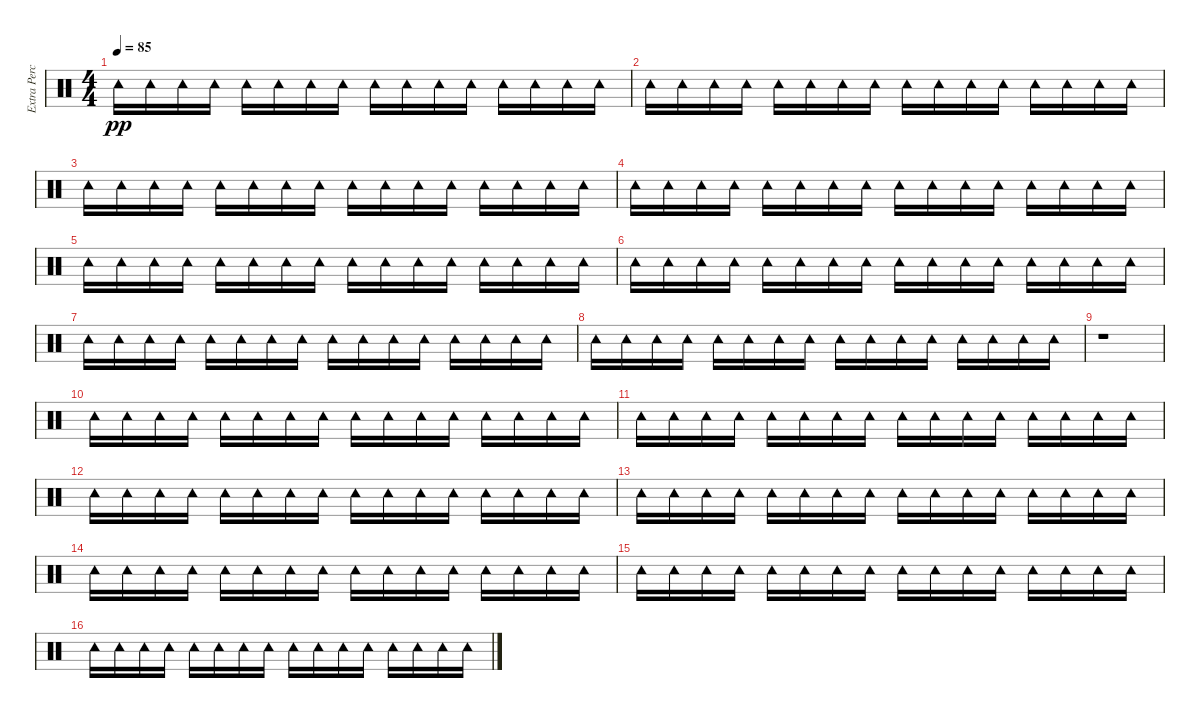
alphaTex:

\track ("Extra Percussion" "Extra Perc") {instrument percussion}
\staff {score}
\articulation defaults
\ts (4 4)
\tempo 85
\clef neutral
\ks c "Tambourine (hit)".16{dy pp} "Tambourine (hit)".16 "Tambourine (hit)".16 "Tambourine (hit)".16 "Tambourine (hit)".16 "Tambourine (hit)".16 "Tambourine (hit)".16 "Tambourine (hit)".16 "Tambourine (hit)".16 "Tambourine (hit)".16 "Tambourine (hit)".16 "Tambourine (hit)".16 "Tambourine (hit)".16 "Tambourine (hit)".16 "Tambourine (hit)".16 "Tambourine (hit)".16
|
"Tambourine (hit)".16 "Tambourine (hit)".16 "Tambourine (hit)".16 "Tambourine (hit)".16 "Tambourine (hit)".16 "Tambourine (hit)".16 "Tambourine (hit)".16 "Tambourine (hit)".16 "Tambourine (hit)".16 "Tambourine (hit)".16 "Tambourine (hit)".16 "Tambourine (hit)".16 "Tambourine (hit)".16 "Tambourine (hit)".16 "Tambourine (hit)".16 "Tambourine (hit)".16 |
"Tambourine (hit)".16 "Tambourine (hit)".16 "Tambourine (hit)".16 "Tambourine (hit)".16 "Tambourine (hit)".16 "Tambourine (hit)".16 "Tambourine (hit)".16 "Tambourine (hit)".16 "Tambourine (hit)".16 "Tambourine (hit)".16 "Tambourine (hit)".16 "Tambourine (hit)".16 "Tambourine (hit)".16 "Tambourine (hit)".16 "Tambourine (hit)".16 "Tambourine (hit)".16 |
"Tambourine (hit)".16 "Tambourine (hit)".16 "Tambourine (hit)".16 "Tambourine (hit)".16 "Tambourine (hit)".16 "Tambourine (hit)".16 "Tambourine (hit)".16 "Tambourine (hit)".16 "Tambourine (hit)".16 "Tambourine (hit)".16 "Tambourine (hit)".16 "Tambourine (hit)".16 "Tambourine (hit)".16 "Tambourine (hit)".16 "Tambourine (hit)".16 "Tambourine (hit)".16 |
"Tambourine (hit)".16 "Tambourine (hit)".16 "Tambourine (hit)".16 "Tambourine (hit)".16 "Tambourine (hit)".16 "Tambourine (hit)".16 "Tambourine (hit)".16 "Tambourine (hit)".16 "Tambourine (hit)".16 "Tambourine (hit)".16 "Tambourine (hit)".16 "Tambourine (hit)".16 "Tambourine (hit)".16 "Tambourine (hit)".16 "Tambourine (hit)".16 "Tambourine (hit)".16 |
"Tambourine (hit)".16 "Tambourine (hit)".16 "Tambourine (hit)".16 "Tambourine (hit)".16 "Tambourine (hit)".16 "Tambourine (hit)".16 "Tambourine (hit)".16 "Tambourine (hit)".16 "Tambourine (hit)".16 "Tambourine (hit)".16 "Tambourine (hit)".16 "Tambourine (hit)".16 "Tambourine (hit)".16 "Tambourine (hit)".16 "Tambourine (hit)".16 "Tambourine (hit)".16 |
"Tambourine (hit)".16 "Tambourine (hit)".16 "Tambourine (hit)".16 "Tambourine (hit)".16 "Tambourine (hit)".16 "Tambourine (hit)".16 "Tambourine (hit)".16 "Tambourine (hit)".16 "Tambourine (hit)".16 "Tambourine (hit)".16 "Tambourine (hit)".16 "Tambourine (hit)".16 "Tambourine (hit)".16 "Tambourine (hit)".16 "Tambourine (hit)".16 "Tambourine (hit)".16 |
"Tambourine (hit)".16 "Tambourine (hit)".16 "Tambourine (hit)".16 "Tambourine (hit)".16 "Tambourine (hit)".16 "Tambourine (hit)".16 "Tambourine (hit)".16 "Tambourine (hit)".16 "Tambourine (hit)".16 "Tambourine (hit)".16 "Tambourine (hit)".16 "Tambourine (hit)".16 "Tambourine (hit)".16 "Tambourine (hit)".16 "Tambourine (hit)".16 "Tambourine (hit)".16 |
r.1 |
"Tambourine (hit)".16 "Tambourine (hit)".16 "Tambourine (hit)".16 "Tambourine (hit)".16 "Tambourine (hit)".16 "Tambourine (hit)".16 "Tambourine (hit)".16 "Tambourine (hit)".16 "Tambourine (hit)".16 "Tambourine (hit)".16 "Tambourine (hit)".16 "Tambourine (hit)".16 "Tambourine (hit)".16 "Tambourine (hit)".16 "Tambourine (hit)".16 "Tambourine (hit)".16 |
"Tambourine (hit)".16 "Tambourine (hit)".16 "Tambourine (hit)".16 "Tambourine (hit)".16 "Tambourine (hit)".16 "Tambourine (hit)".16 "Tambourine (hit)".16 "Tambourine (hit)".16 "Tambourine (hit)".16 "Tambourine (hit)".16 "Tambourine (hit)".16 "Tambourine (hit)".16 "Tambourine (hit)".16 "Tambourine (hit)".16 "Tambourine (hit)".16 "Tambourine (hit)".16 |
"Tambourine (hit)".16 "Tambourine (hit)".16 "Tambourine (hit)".16 "Tambourine (hit)".16 "Tambourine (hit)".16 "Tambourine (hit)".16 "Tambourine (hit)".16 "Tambourine (hit)".16 "Tambourine (hit)".16 "Tambourine (hit)".16 "Tambourine (hit)".16 "Tambourine (hit)".16 "Tambourine (hit)".16 "Tambourine (hit)".16 "Tambourine (hit)".16 "Tambourine (hit)".16 |
"Tambourine (hit)".16 "Tambourine (hit)".16 "Tambourine (hit)".16 "Tambourine (hit)".16 "Tambourine (hit)".16 "Tambourine (hit)".16 "Tambourine (hit)".16 "Tambourine (hit)".16 "Tambourine (hit)".16 "Tambourine (hit)".16 "Tambourine (hit)".16 "Tambourine (hit)".16 "Tambourine (hit)".16 "Tambourine (hit)".16 "Tambourine (hit)".16 "Tambourine (hit)".16 |
"Tambourine (hit)".16 "Tambourine (hit)".16 "Tambourine (hit)".16 "Tambourine (hit)".16 "Tambourine (hit)".16 "Tambourine (hit)".16 "Tambourine (hit)".16 "Tambourine (hit)".16 "Tambourine (hit)".16 "Tambourine (hit)".16 "Tambourine (hit)".16 "Tambourine (hit)".16 "Tambourine (hit)".16 "Tambourine (hit)".16 "Tambourine (hit)".16 "Tambourine (hit)".16 |
"Tambourine (hit)".16 "Tambourine (hit)".16 "Tambourine (hit)".16 "Tambourine (hit)".16 "Tambourine (hit)".16 "Tambourine (hit)".16 "Tambourine (hit)".16 "Tambourine (hit)".16 "Tambourine (hit)".16 "Tambourine (hit)".16 "Tambourine (hit)".16 "Tambourine (hit)".16 "Tambourine (hit)".16 "Tambourine (hit)".16 "Tambourine (hit)".16 "Tambourine (hit)".16 |
"Tambourine (hit)".16 "Tambourine (hit)".16 "Tambourine (hit)".16 "Tambourine (hit)".16 "Tambourine (hit)".16 "Tambourine (hit)".16 "Tambourine (hit)".16 "Tambourine (hit)".16 "Tambourine (hit)".16 "Tambourine (hit)".16 "Tambourine (hit)".16 "Tambourine (hit)".16 "Tambourine (hit)".16 "Tambourine (hit)".16 "Tambourine (hit)".16 "Tambourine (hit)".16
